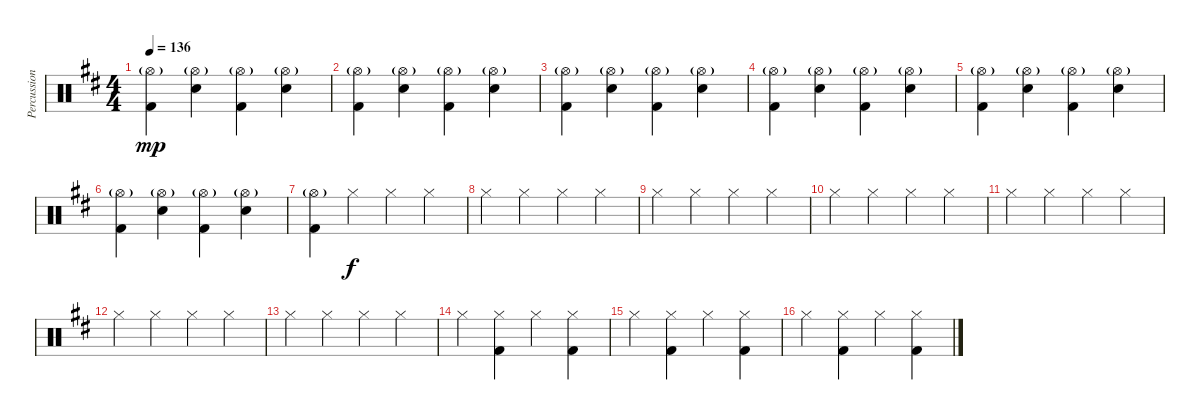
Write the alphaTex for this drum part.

\track ("Percussions" "Percussion") {instrument percussion}
\staff {score}
\articulation defaults
\ts (4 4)
\tempo 136
\clef neutral
\ks d
("Hi-Hat (open)"{g} "Kick (hit) 2").4{dy mp} ("Hi-Hat (open)"{g} "Snare (hit) 2").4 ("Hi-Hat (open)"{g} "Kick (hit) 2").4 ("Hi-Hat (open)"{g} "Snare (hit) 2").4 |
("Hi-Hat (open)"{g} "Kick (hit) 2").4 ("Hi-Hat (open)"{g} "Snare (hit) 2").4 ("Hi-Hat (open)"{g} "Kick (hit) 2").4 ("Hi-Hat (open)"{g} "Snare (hit) 2").4 |
("Hi-Hat (open)"{g} "Kick (hit) 2").4 ("Hi-Hat (open)"{g} "Snare (hit) 2").4 ("Hi-Hat (open)"{g} "Kick (hit) 2").4 ("Hi-Hat (open)"{g} "Snare (hit) 2").4 |
("Hi-Hat (open)"{g} "Kick (hit) 2").4 ("Hi-Hat (open)"{g} "Snare (hit) 2").4 ("Hi-Hat (open)"{g} "Kick (hit) 2").4 ("Hi-Hat (open)"{g} "Snare (hit) 2").4 |
("Hi-Hat (open)"{g} "Kick (hit) 2").4 ("Hi-Hat (open)"{g} "Snare (hit) 2").4 ("Hi-Hat (open)"{g} "Kick (hit) 2").4 ("Hi-Hat (open)"{g} "Snare (hit) 2").4 |
("Hi-Hat (open)"{g} "Kick (hit) 2").4 ("Hi-Hat (open)"{g} "Snare (hit) 2").4 ("Hi-Hat (open)"{g} "Kick (hit) 2").4 ("Hi-Hat (open)"{g} "Snare (hit) 2").4 |
("Hi-Hat (open)"{g} "Kick (hit) 2").4 "Hi-Hat (closed)".4{dy f} "Hi-Hat (closed)".4 "Hi-Hat (closed)".4 |
"Hi-Hat (closed)".4 "Hi-Hat (closed)".4 "Hi-Hat (closed)".4 "Hi-Hat (closed)".4 |
"Hi-Hat (closed)".4 "Hi-Hat (closed)".4 "Hi-Hat (closed)".4 "Hi-Hat (closed)".4 |
"Hi-Hat (closed)".4 "Hi-Hat (closed)".4 "Hi-Hat (closed)".4 "Hi-Hat (closed)".4 |
"Hi-Hat (closed)".4 "Hi-Hat (closed)".4 "Hi-Hat (closed)".4 "Hi-Hat (closed)".4 |
"Hi-Hat (closed)".4 "Hi-Hat (closed)".4 "Hi-Hat (closed)".4 "Hi-Hat (closed)".4 |
"Hi-Hat (closed)".4 "Hi-Hat (closed)".4 "Hi-Hat (closed)".4 "Hi-Hat (closed)".4 |
"Hi-Hat (closed)".4 ("Hi-Hat (closed)" "Kick (hit) 2").4 "Hi-Hat (closed)".4 ("Hi-Hat (closed)" "Kick (hit) 2").4 |
"Hi-Hat (closed)".4 ("Hi-Hat (closed)" "Kick (hit) 2").4 "Hi-Hat (closed)".4 ("Hi-Hat (closed)" "Kick (hit) 2").4 |
"Hi-Hat (closed)".4 ("Hi-Hat (closed)" "Kick (hit) 2").4 "Hi-Hat (closed)".4 ("Hi-Hat (closed)" "Kick (hit) 2").4
